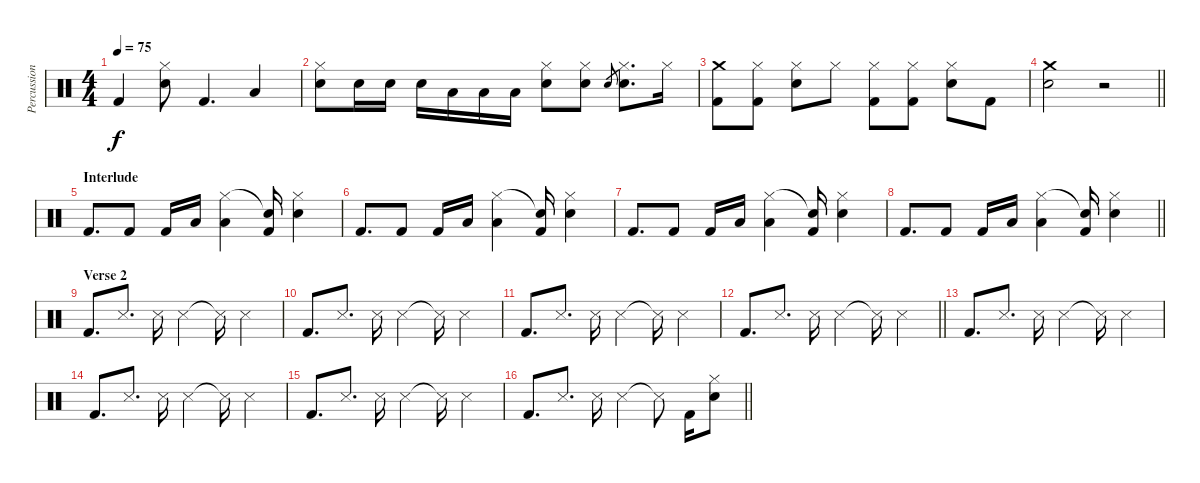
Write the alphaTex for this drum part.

\track ("Percussion (Lemuel)" "Percussion") {instrument percussion}
\staff {score}
\articulation defaults
\ts (4 4)
\tempo 75
\clef neutral
\ks c "Kick (hit) 2".4{dy f}
("Electric Snare (hit)" "Hi-Hat (closed)").8 "Kick (hit) 2".4{d} "Low Tom (hit)".4 |
("Electric Snare (hit)" "Hi-Hat (closed)").8 "Electric Snare (hit)".16 "Electric Snare (hit)".16 "Electric Snare (hit)".16 "Low Tom (hit)".16 "Low Tom (hit)".16 "Low Tom (hit)".16 ("Electric Snare (hit)" "Hi-Hat (closed)").8 ("Electric Snare (hit)" "Hi-Hat (closed)").8 "Electric Snare (hit)".8{gr} ("Electric Snare (hit)" "Hi-Hat (closed)").8{d} "Hi-Hat (closed)".16 |
("Kick (hit) 2" "Crash medium (hit)").8 ("Kick (hit) 2" "Hi-Hat (closed)").8 ("Electric Snare (hit)" "Hi-Hat (closed)").8 "Hi-Hat (closed)".8 ("Kick (hit) 2" "Hi-Hat (closed)").8 ("Kick (hit) 2" "Hi-Hat (closed)").8 ("Electric Snare (hit)" "Hi-Hat (closed)").8 "Kick (hit) 2".8 |
\barLineRight lightlight
("Crash medium (hit)" "Electric Snare (hit)").2 r.2 |
\section ("" "Interlude")
"Kick (hit) 2".8{d} "Kick (hit) 2".8 "Kick (hit) 2".16 "Low Tom (hit)".16 ("Low Tom (hit)" "Hi-Hat (closed)").4 ("Kick (hit) 2" "Snare (hit)"{t}).16 ("Electric Snare (hit)" "Hi-Hat (closed)").4 |
"Kick (hit) 2".8{d} "Kick (hit) 2".8 "Kick (hit) 2".16 "Low Tom (hit)".16 ("Low Tom (hit)" "Hi-Hat (closed)").4 ("Kick (hit) 2" "Snare (hit)"{t}).16 ("Electric Snare (hit)" "Hi-Hat (closed)").4 |
"Kick (hit) 2".8{d} "Kick (hit) 2".8 "Kick (hit) 2".16 "Low Tom (hit)".16 ("Low Tom (hit)" "Hi-Hat (closed)").4 ("Kick (hit) 2" "Snare (hit)"{t}).16 ("Electric Snare (hit)" "Hi-Hat (closed)").4 |
\barLineRight lightlight "Kick (hit) 2".8{d} "Kick (hit) 2".8 "Kick (hit) 2".16 "Low Tom (hit)".16
("Low Tom (hit)" "Hi-Hat (closed)").4 ("Kick (hit) 2" "Snare (hit)"{t}).16 ("Electric Snare (hit)" "Hi-Hat (closed)").4 |
\section ("" "Verse 2")
"Kick (hit) 2".8{d} "Snare (side stick) 3".8{d} "Snare (side stick) 3".16 "Snare (side stick) 3".4 "Snare (side stick) 3"{t}.16 "Snare (side stick) 3".4 |
"Kick (hit) 2".8{d} "Snare (side stick) 3".8{d} "Snare (side stick) 3".16 "Snare (side stick) 3".4 "Snare (side stick) 3"{t}.16 "Snare (side stick) 3".4 |
"Kick (hit) 2".8{d} "Snare (side stick) 3".8{d} "Snare (side stick) 3".16 "Snare (side stick) 3".4 "Snare (side stick) 3"{t}.16 "Snare (side stick) 3".4 |
\barLineRight lightlight "Kick (hit) 2".8{d} "Snare (side stick) 3".8{d} "Snare (side stick) 3".16 "Snare (side stick) 3".4 "Snare (side stick) 3"{t}.16 "Snare (side stick) 3".4
|
"Kick (hit) 2".8{d} "Snare (side stick) 3".8{d} "Snare (side stick) 3".16 "Snare (side stick) 3".4 "Snare (side stick) 3"{t}.16 "Snare (side stick) 3".4 |
"Kick (hit) 2".8{d} "Snare (side stick) 3".8{d} "Snare (side stick) 3".16 "Snare (side stick) 3".4 "Snare (side stick) 3"{t}.16 "Snare (side stick) 3".4 |
"Kick (hit) 2".8{d} "Snare (side stick) 3".8{d} "Snare (side stick) 3".16 "Snare (side stick) 3".4 "Snare (side stick) 3"{t}.16 "Snare (side stick) 3".4 |
\barLineRight lightlight "Kick (hit) 2".8{d} "Snare (side stick) 3".8{d} "Snare (side stick) 3".16 "Snare (side stick) 3".4 "Snare (side stick) 3"{t}.8 "Kick (hit) 2".16
("Electric Snare (hit)" "Hi-Hat (closed)").8
